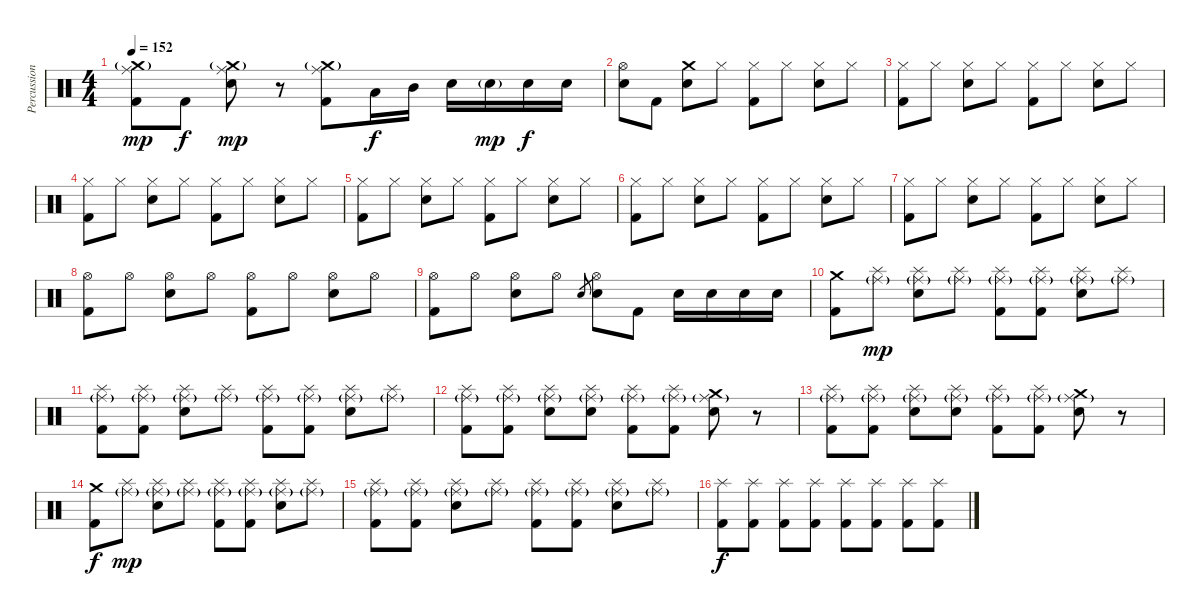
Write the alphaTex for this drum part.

\track ("Percussion" "Percussion") {instrument percussion}
\staff {score}
\articulation defaults
\ts (4 4)
\tempo 152
\clef neutral
\ks c
("Crash medium (hit)"{g} "Ride (middle)" "Kick (hit) 2").8{dy mp} "Kick (hit) 2".8{dy f} ("Crash medium (hit)"{g} "Ride (middle)" "Electric Snare (hit)").8{dy mp} r.8 ("Crash medium (hit)"{g} "Ride (middle)" "Kick (hit) 2").8 "Low Tom (hit)".16{dy f} "Mid Tom (hit)".16 "Electric Snare (hit)".16 "Electric Snare (hit)"{g}.16{dy mp} "Electric Snare (hit)".16{dy f} "Electric Snare (hit)".16 |
("Hi-Hat (open)" "Electric Snare (hit)").8 "Kick (hit) 2".8 ("Crash medium (hit)" "Electric Snare (hit)").8 "Hi-Hat (closed)".8 ("Hi-Hat (closed)" "Kick (hit) 2").8 "Hi-Hat (closed)".8 ("Hi-Hat (closed)" "Electric Snare (hit)").8 "Hi-Hat (closed)".8 |
("Hi-Hat (closed)" "Kick (hit) 2").8 "Hi-Hat (closed)".8 ("Hi-Hat (closed)" "Electric Snare (hit)").8 "Hi-Hat (closed)".8 ("Hi-Hat (closed)" "Kick (hit) 2").8 "Hi-Hat (closed)".8 ("Hi-Hat (closed)" "Electric Snare (hit)").8 "Hi-Hat (closed)".8 |
("Hi-Hat (closed)" "Kick (hit) 2").8 "Hi-Hat (closed)".8 ("Hi-Hat (closed)" "Electric Snare (hit)").8 "Hi-Hat (closed)".8 ("Hi-Hat (closed)" "Kick (hit) 2").8 "Hi-Hat (closed)".8 ("Hi-Hat (closed)" "Electric Snare (hit)").8 "Hi-Hat (closed)".8 |
("Hi-Hat (closed)" "Kick (hit) 2").8 "Hi-Hat (closed)".8 ("Hi-Hat (closed)" "Electric Snare (hit)").8 "Hi-Hat (closed)".8 ("Hi-Hat (closed)" "Kick (hit) 2").8 "Hi-Hat (closed)".8 ("Hi-Hat (closed)" "Electric Snare (hit)").8 "Hi-Hat (closed)".8 |
("Hi-Hat (closed)" "Kick (hit) 2").8 "Hi-Hat (closed)".8 ("Hi-Hat (closed)" "Electric Snare (hit)").8 "Hi-Hat (closed)".8 ("Hi-Hat (closed)" "Kick (hit) 2").8 "Hi-Hat (closed)".8 ("Hi-Hat (closed)" "Electric Snare (hit)").8 "Hi-Hat (closed)".8 |
("Hi-Hat (closed)" "Kick (hit) 2").8 "Hi-Hat (closed)".8 ("Hi-Hat (closed)" "Electric Snare (hit)").8 "Hi-Hat (closed)".8 ("Hi-Hat (closed)" "Kick (hit) 2").8 "Hi-Hat (closed)".8 ("Hi-Hat (closed)" "Electric Snare (hit)").8 "Hi-Hat (closed)".8 |
("Hi-Hat (open)" "Kick (hit) 2").8 "Hi-Hat (open)".8 ("Hi-Hat (open)" "Electric Snare (hit)").8 "Hi-Hat (open)".8 ("Hi-Hat (open)" "Kick (hit) 2").8 "Hi-Hat (open)".8 ("Hi-Hat (open)" "Electric Snare (hit)").8 "Hi-Hat (open)".8 |
("Hi-Hat (open)" "Kick (hit) 2").8 "Hi-Hat (open)".8 ("Hi-Hat (open)" "Electric Snare (hit)").8 "Hi-Hat (open)".8 "Electric Snare (hit)".8{gr} ("Hi-Hat (open)" "Electric Snare (hit)").8 "Kick (hit) 2".8 "Electric Snare (hit)".16 "Electric Snare (hit)".16 "Electric Snare (hit)".16 "Electric Snare (hit)".16 |
("Crash medium (hit)" "Kick (hit) 2").8 ("Splash (hit)" "Ride (middle)"{g}).8{dy mp} ("Splash (hit)" "Ride (middle)"{g} "Electric Snare (hit)").8 ("Splash (hit)" "Ride (middle)"{g}).8 ("Splash (hit)" "Ride (middle)"{g} "Kick (hit) 2").8 ("Splash (hit)" "Ride (middle)"{g} "Kick (hit) 2").8 ("Splash (hit)" "Ride (middle)"{g} "Electric Snare (hit)").8 ("Splash (hit)" "Ride (middle)"{g}).8 |
("Splash (hit)" "Ride (middle)"{g} "Kick (hit) 2").8 ("Splash (hit)" "Ride (middle)"{g} "Kick (hit) 2").8 ("Splash (hit)" "Ride (middle)"{g} "Electric Snare (hit)").8 ("Splash (hit)" "Ride (middle)"{g}).8 ("Splash (hit)" "Ride (middle)"{g} "Kick (hit) 2").8 ("Splash (hit)" "Ride (middle)"{g} "Kick (hit) 2").8 ("Splash (hit)" "Ride (middle)"{g} "Electric Snare (hit)").8 ("Splash (hit)" "Ride (middle)"{g}).8 |
("Splash (hit)" "Ride (middle)"{g} "Kick (hit) 2").8 ("Splash (hit)" "Ride (middle)"{g} "Kick (hit) 2").8 ("Splash (hit)" "Ride (middle)"{g} "Electric Snare (hit)").8 ("Splash (hit)" "Ride (middle)"{g} "Electric Snare (hit)").8 ("Splash (hit)" "Ride (middle)"{g} "Kick (hit) 2").8 ("Splash (hit)" "Ride (middle)"{g} "Kick (hit) 2").8 ("Crash medium (hit)" "Ride (middle)"{g} "Electric Snare (hit)").8 r.8 |
("Splash (hit)" "Ride (middle)"{g} "Kick (hit) 2").8 ("Splash (hit)" "Ride (middle)"{g} "Kick (hit) 2").8 ("Splash (hit)" "Ride (middle)"{g} "Electric Snare (hit)").8 ("Splash (hit)" "Ride (middle)"{g} "Electric Snare (hit)").8 ("Splash (hit)" "Ride (middle)"{g} "Kick (hit) 2").8 ("Splash (hit)" "Ride (middle)"{g} "Kick (hit) 2").8 ("Crash medium (hit)" "Ride (middle)"{g} "Electric Snare (hit)").8 r.8 |
("Crash medium (hit)" "Kick (hit) 2").8{dy f} ("Splash (hit)" "Ride (middle)"{g}).8{dy mp} ("Splash (hit)" "Ride (middle)"{g} "Electric Snare (hit)").8 ("Splash (hit)" "Ride (middle)"{g}).8 ("Splash (hit)" "Ride (middle)"{g} "Kick (hit) 2").8 ("Splash (hit)" "Ride (middle)"{g} "Kick (hit) 2").8 ("Splash (hit)" "Ride (middle)"{g} "Electric Snare (hit)").8 ("Splash (hit)" "Ride (middle)"{g}).8 |
("Splash (hit)" "Ride (middle)"{g} "Kick (hit) 2").8 ("Splash (hit)" "Ride (middle)"{g} "Kick (hit) 2").8 ("Splash (hit)" "Ride (middle)"{g} "Electric Snare (hit)").8 ("Splash (hit)" "Ride (middle)"{g}).8 ("Splash (hit)" "Ride (middle)"{g} "Kick (hit) 2").8 ("Splash (hit)" "Ride (middle)"{g} "Kick (hit) 2").8 ("Splash (hit)" "Ride (middle)"{g} "Electric Snare (hit)").8 ("Splash (hit)" "Ride (middle)"{g}).8 |
("Splash (hit)" "Kick (hit) 2").8{dy f volume 4} ("Splash (hit)" "Kick (hit) 2").8{volume 13} ("Splash (hit)" "Kick (hit) 2").8 ("Splash (hit)" "Kick (hit) 2").8 ("Splash (hit)" "Kick (hit) 2").8 ("Splash (hit)" "Kick (hit) 2").8 ("Splash (hit)" "Kick (hit) 2").8 ("Splash (hit)" "Kick (hit) 2").8
